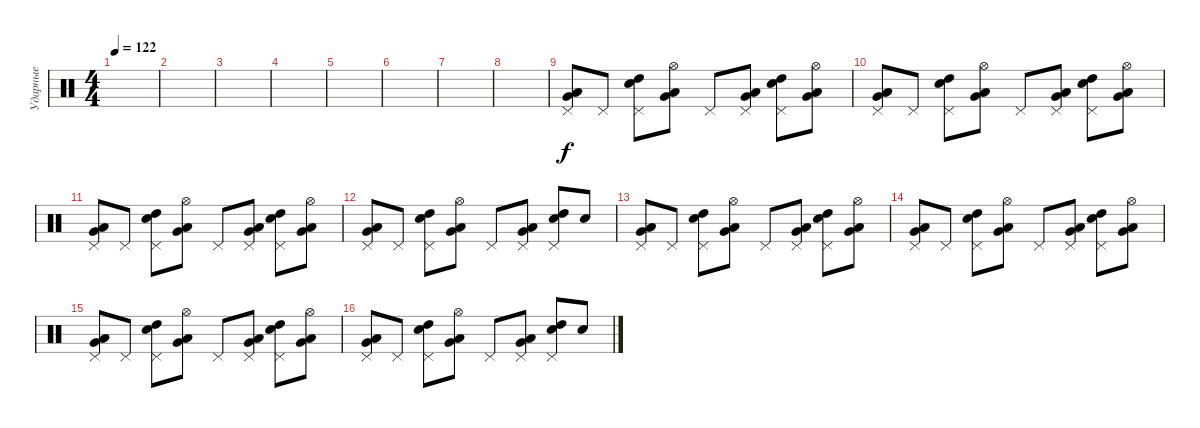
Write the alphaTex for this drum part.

\track ("Ударные" "Ударные") {instrument percussion}
\staff {score}
\articulation defaults
\ts (4 4)
\tempo 122
\clef neutral
\ks c
|
|
|
|
|
|
|
|
("Pedal Hi-Hat (hit)" "Low Floor Tom (hit)" "Very Low Tom (hit)").8 "Pedal Hi-Hat (hit)".8 ("Pedal Hi-Hat (hit)" "High Tom (hit)" "Snare (hit) 2").8 ("Hi-Hat (open)" "Low Floor Tom (hit)" "Very Low Tom (hit)").8 "Pedal Hi-Hat (hit)".8 ("Pedal Hi-Hat (hit)" "Low Floor Tom (hit)" "Very Low Tom (hit)").8 ("Pedal Hi-Hat (hit)" "High Tom (hit)" "Snare (hit) 2").8 ("Hi-Hat (open)" "Low Floor Tom (hit)" "Very Low Tom (hit)").8 |
("Pedal Hi-Hat (hit)" "Low Floor Tom (hit)" "Very Low Tom (hit)").8 "Pedal Hi-Hat (hit)".8 ("Pedal Hi-Hat (hit)" "High Tom (hit)" "Snare (hit) 2").8 ("Hi-Hat (open)" "Low Floor Tom (hit)" "Very Low Tom (hit)").8 "Pedal Hi-Hat (hit)".8 ("Pedal Hi-Hat (hit)" "Low Floor Tom (hit)" "Very Low Tom (hit)").8 ("Pedal Hi-Hat (hit)" "High Tom (hit)" "Snare (hit) 2").8 ("Hi-Hat (open)" "Low Floor Tom (hit)" "Very Low Tom (hit)").8 |
("Pedal Hi-Hat (hit)" "Low Floor Tom (hit)" "Very Low Tom (hit)").8 "Pedal Hi-Hat (hit)".8 ("Pedal Hi-Hat (hit)" "High Tom (hit)" "Snare (hit) 2").8 ("Hi-Hat (open)" "Low Floor Tom (hit)" "Very Low Tom (hit)").8 "Pedal Hi-Hat (hit)".8 ("Pedal Hi-Hat (hit)" "Low Floor Tom (hit)" "Very Low Tom (hit)").8 ("Pedal Hi-Hat (hit)" "High Tom (hit)" "Snare (hit) 2").8 ("Hi-Hat (open)" "Low Floor Tom (hit)" "Very Low Tom (hit)").8 |
("Pedal Hi-Hat (hit)" "Low Floor Tom (hit)" "Very Low Tom (hit)").8 "Pedal Hi-Hat (hit)".8 ("Pedal Hi-Hat (hit)" "High Tom (hit)" "Snare (hit) 2").8 ("Hi-Hat (open)" "Low Floor Tom (hit)" "Very Low Tom (hit)").8 "Pedal Hi-Hat (hit)".8 ("Pedal Hi-Hat (hit)" "Low Floor Tom (hit)" "Very Low Tom (hit)").8 ("Pedal Hi-Hat (hit)" "High Tom (hit)" "Snare (hit) 2").8 "Snare (hit) 2".8 |
("Pedal Hi-Hat (hit)" "Low Floor Tom (hit)" "Very Low Tom (hit)").8 "Pedal Hi-Hat (hit)".8 ("Pedal Hi-Hat (hit)" "High Tom (hit)" "Snare (hit) 2").8 ("Hi-Hat (open)" "Low Floor Tom (hit)" "Very Low Tom (hit)").8 "Pedal Hi-Hat (hit)".8 ("Pedal Hi-Hat (hit)" "Low Floor Tom (hit)" "Very Low Tom (hit)").8 ("Pedal Hi-Hat (hit)" "High Tom (hit)" "Snare (hit) 2").8 ("Hi-Hat (open)" "Low Floor Tom (hit)" "Very Low Tom (hit)").8 |
("Pedal Hi-Hat (hit)" "Low Floor Tom (hit)" "Very Low Tom (hit)").8 "Pedal Hi-Hat (hit)".8 ("Pedal Hi-Hat (hit)" "High Tom (hit)" "Snare (hit) 2").8 ("Hi-Hat (open)" "Low Floor Tom (hit)" "Very Low Tom (hit)").8 "Pedal Hi-Hat (hit)".8 ("Pedal Hi-Hat (hit)" "Low Floor Tom (hit)" "Very Low Tom (hit)").8 ("Pedal Hi-Hat (hit)" "High Tom (hit)" "Snare (hit) 2").8 ("Hi-Hat (open)" "Low Floor Tom (hit)" "Very Low Tom (hit)").8 |
("Pedal Hi-Hat (hit)" "Low Floor Tom (hit)" "Very Low Tom (hit)").8 "Pedal Hi-Hat (hit)".8 ("Pedal Hi-Hat (hit)" "High Tom (hit)" "Snare (hit) 2").8 ("Hi-Hat (open)" "Low Floor Tom (hit)" "Very Low Tom (hit)").8 "Pedal Hi-Hat (hit)".8 ("Pedal Hi-Hat (hit)" "Low Floor Tom (hit)" "Very Low Tom (hit)").8 ("Pedal Hi-Hat (hit)" "High Tom (hit)" "Snare (hit) 2").8 ("Hi-Hat (open)" "Low Floor Tom (hit)" "Very Low Tom (hit)").8 |
("Pedal Hi-Hat (hit)" "Low Floor Tom (hit)" "Very Low Tom (hit)").8 "Pedal Hi-Hat (hit)".8 ("Pedal Hi-Hat (hit)" "High Tom (hit)" "Snare (hit) 2").8 ("Hi-Hat (open)" "Low Floor Tom (hit)" "Very Low Tom (hit)").8 "Pedal Hi-Hat (hit)".8 ("Pedal Hi-Hat (hit)" "Low Floor Tom (hit)" "Very Low Tom (hit)").8 ("Pedal Hi-Hat (hit)" "High Tom (hit)" "Snare (hit) 2").8 "Snare (hit) 2".8
